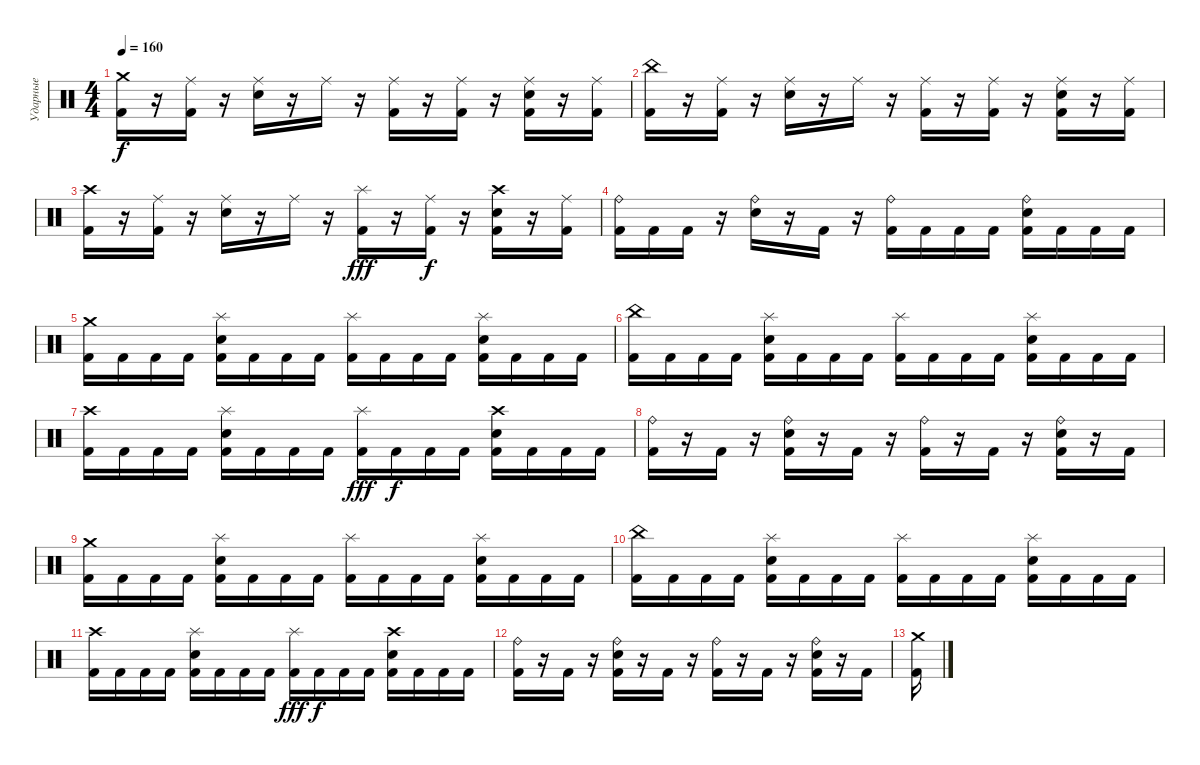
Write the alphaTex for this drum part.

\track ("Ударные" "Ударные") {instrument percussion}
\staff {score}
\articulation defaults
\ts (4 4)
\tempo 160
\clef neutral
\ks c
("Crash medium (hit)" "Kick (hit) 2").16{dy f} r.16 ("Ride (middle)" "Kick (hit) 2").16 r.16 ("Ride (middle)" "Snare (hit) 2").16 r.16 "Ride (middle)".16 r.16 ("Ride (middle)" "Kick (hit) 2").16 r.16 ("Ride (middle)" "Kick (hit) 2").16 r.16 ("Ride (middle)" "Snare (hit) 2" "Kick (hit) 2").16 r.16 ("Ride (middle)" "Kick (hit) 2").16 |
("China (hit)" "Kick (hit) 2").16 r.16 ("Ride (middle)" "Kick (hit) 2").16 r.16 ("Ride (middle)" "Snare (hit) 2").16 r.16 "Ride (middle)".16 r.16 ("Ride (middle)" "Kick (hit) 2").16 r.16 ("Ride (middle)" "Kick (hit) 2").16 r.16 ("Ride (middle)" "Snare (hit) 2" "Kick (hit) 2").16 r.16 ("Ride (middle)" "Kick (hit) 2").16 |
("Crash high (hit)" "Kick (hit) 2").16 r.16 ("Ride (middle)" "Kick (hit) 2").16 r.16 ("Ride (middle)" "Snare (hit) 2").16 r.16 "Ride (middle)".16 r.16 ("Splash (hit)" "Kick (hit) 2").16{dy fff} r.16 ("Ride (middle)" "Kick (hit) 2").16{dy f} r.16 ("Crash high (hit)" "Snare (hit) 2" "Kick (hit) 2").16 r.16 ("Ride (middle)" "Kick (hit) 2").16 |
("Ride (bell)" "Kick (hit) 2").16 "Kick (hit) 2".16 "Kick (hit) 2".16 r.16 ("Ride (bell)" "Snare (hit) 2").16 r.16 "Kick (hit) 2".16 r.16 ("Ride (bell)" "Kick (hit) 2").16 "Kick (hit) 2".16 "Kick (hit) 2".16 "Kick (hit) 2".16 ("Ride (bell)" "Snare (hit) 2" "Kick (hit) 2").16 "Kick (hit) 2".16 "Kick (hit) 2".16 "Kick (hit) 2".16 |
("Crash medium (hit)" "Kick (hit) 2").16 "Kick (hit) 2".16 "Kick (hit) 2".16 "Kick (hit) 2".16 ("Splash (hit)" "Snare (hit) 2" "Kick (hit) 2").16 "Kick (hit) 2".16 "Kick (hit) 2".16 "Kick (hit) 2".16 ("Splash (hit)" "Kick (hit) 2").16 "Kick (hit) 2".16 "Kick (hit) 2".16 "Kick (hit) 2".16 ("Splash (hit)" "Snare (hit) 2" "Kick (hit) 2").16 "Kick (hit) 2".16 "Kick (hit) 2".16 "Kick (hit) 2".16 |
("China (hit)" "Kick (hit) 2").16 "Kick (hit) 2".16 "Kick (hit) 2".16 "Kick (hit) 2".16 ("Splash (hit)" "Snare (hit) 2" "Kick (hit) 2").16 "Kick (hit) 2".16 "Kick (hit) 2".16 "Kick (hit) 2".16 ("Splash (hit)" "Kick (hit) 2").16 "Kick (hit) 2".16 "Kick (hit) 2".16 "Kick (hit) 2".16 ("Splash (hit)" "Snare (hit) 2" "Kick (hit) 2").16 "Kick (hit) 2".16 "Kick (hit) 2".16 "Kick (hit) 2".16 |
("Crash high (hit)" "Kick (hit) 2").16 "Kick (hit) 2".16 "Kick (hit) 2".16 "Kick (hit) 2".16 ("Splash (hit)" "Snare (hit) 2" "Kick (hit) 2").16 "Kick (hit) 2".16 "Kick (hit) 2".16 "Kick (hit) 2".16 ("Splash (hit)" "Kick (hit) 2").16{dy fff} "Kick (hit) 2".16{dy f} "Kick (hit) 2".16 "Kick (hit) 2".16 ("Crash high (hit)" "Snare (hit) 2" "Kick (hit) 2").16 "Kick (hit) 2".16 "Kick (hit) 2".16 "Kick (hit) 2".16 |
("Ride (bell)" "Kick (hit) 2").16 r.16 "Kick (hit) 2".16 r.16 ("Ride (bell)" "Snare (hit) 2" "Kick (hit) 2").16 r.16 "Kick (hit) 2".16 r.16 ("Ride (bell)" "Kick (hit) 2").16 r.16 "Kick (hit) 2".16 r.16 ("Ride (bell)" "Snare (hit) 2" "Kick (hit) 2").16 r.16 "Kick (hit) 2".16 |
("Crash medium (hit)" "Kick (hit) 2").16 "Kick (hit) 2".16 "Kick (hit) 2".16 "Kick (hit) 2".16 ("Splash (hit)" "Snare (hit) 2" "Kick (hit) 2").16 "Kick (hit) 2".16 "Kick (hit) 2".16 "Kick (hit) 2".16 ("Splash (hit)" "Kick (hit) 2").16 "Kick (hit) 2".16 "Kick (hit) 2".16 "Kick (hit) 2".16 ("Splash (hit)" "Snare (hit) 2" "Kick (hit) 2").16 "Kick (hit) 2".16 "Kick (hit) 2".16 "Kick (hit) 2".16 |
("China (hit)" "Kick (hit) 2").16 "Kick (hit) 2".16 "Kick (hit) 2".16 "Kick (hit) 2".16 ("Splash (hit)" "Snare (hit) 2" "Kick (hit) 2").16 "Kick (hit) 2".16 "Kick (hit) 2".16 "Kick (hit) 2".16 ("Splash (hit)" "Kick (hit) 2").16 "Kick (hit) 2".16 "Kick (hit) 2".16 "Kick (hit) 2".16 ("Splash (hit)" "Snare (hit) 2" "Kick (hit) 2").16 "Kick (hit) 2".16 "Kick (hit) 2".16 "Kick (hit) 2".16 |
("Crash high (hit)" "Kick (hit) 2").16 "Kick (hit) 2".16 "Kick (hit) 2".16 "Kick (hit) 2".16 ("Splash (hit)" "Snare (hit) 2" "Kick (hit) 2").16 "Kick (hit) 2".16 "Kick (hit) 2".16 "Kick (hit) 2".16 ("Splash (hit)" "Kick (hit) 2").16{dy fff} "Kick (hit) 2".16{dy f} "Kick (hit) 2".16 "Kick (hit) 2".16 ("Crash high (hit)" "Snare (hit) 2" "Kick (hit) 2").16 "Kick (hit) 2".16 "Kick (hit) 2".16 "Kick (hit) 2".16 |
("Ride (bell)" "Kick (hit) 2").16 r.16 "Kick (hit) 2".16 r.16 ("Ride (bell)" "Snare (hit) 2" "Kick (hit) 2").16 r.16 "Kick (hit) 2".16 r.16 ("Ride (bell)" "Kick (hit) 2").16 r.16 "Kick (hit) 2".16 r.16 ("Ride (bell)" "Snare (hit) 2" "Kick (hit) 2").16 r.16 "Kick (hit) 2".16 |
("Crash medium (hit)" "Kick (hit) 2").16
